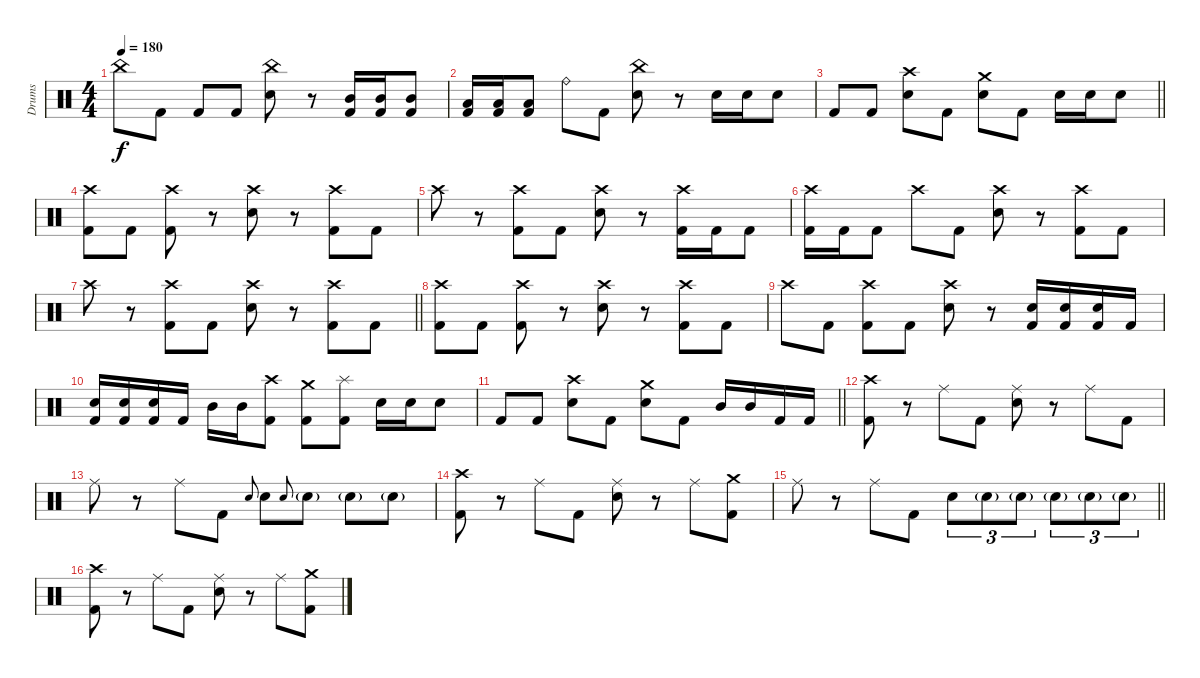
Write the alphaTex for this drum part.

\track ("Drums" "Drums") {instrument percussion}
\staff {score}
\articulation defaults
\ts (4 4)
\tempo 180
\clef neutral
\ks c "China (hit)".8{dy f} "Kick (hit) 2".8 "Kick (hit) 2".8 "Kick (hit) 2".8
("China (hit)" "Electric Snare (hit)").8 r.8 ("Mid Tom (hit)" "Kick (hit) 2").16 ("Mid Tom (hit)" "Kick (hit) 2").16 ("Mid Tom (hit)" "Kick (hit) 2").8 |
("Low Tom (hit)" "Kick (hit) 2").16 ("Low Tom (hit)" "Kick (hit) 2").16 ("Low Tom (hit)" "Kick (hit) 2").8 "Ride (bell)".8 "Kick (hit) 2".8 ("China (hit)" "Electric Snare (hit)").8 r.8 "Electric Snare (hit)".16 "Electric Snare (hit)".16 "Electric Snare (hit)".8 |
\barLineRight lightlight "Kick (hit) 2".8 "Kick (hit) 2".8
("Crash high (hit)" "Electric Snare (hit)").8 "Kick (hit) 2".8 ("Crash medium (hit)" "Electric Snare (hit)").8 "Kick (hit) 2".8 "Electric Snare (hit)".16 "Electric Snare (hit)".16 "Electric Snare (hit)".8 |
("Crash high (hit)" "Kick (hit) 2").8 "Kick (hit) 2".8 ("Crash high (hit)" "Kick (hit) 2").8 r.8 ("Crash high (hit)" "Electric Snare (hit)").8 r.8 ("Crash high (hit)" "Kick (hit) 2").8 "Kick (hit) 2".8 |
"Crash high (hit)".8 r.8 ("Crash high (hit)" "Kick (hit) 2").8 "Kick (hit) 2".8 ("Crash high (hit)" "Electric Snare (hit)").8 r.8 ("Crash high (hit)" "Kick (hit) 2").16 "Kick (hit) 2".16 "Kick (hit) 2".8 |
("Crash high (hit)" "Kick (hit) 2").16 "Kick (hit) 2".16 "Kick (hit) 2".8 "Crash high (hit)".8 "Kick (hit) 2".8 ("Crash high (hit)" "Electric Snare (hit)").8 r.8 ("Crash high (hit)" "Kick (hit) 2").8 "Kick (hit) 2".8 |
\barLineRight lightlight "Crash high (hit)".8
r.8 ("Crash high (hit)" "Kick (hit) 2").8 "Kick (hit) 2".8 ("Crash high (hit)" "Electric Snare (hit)").8 r.8 ("Crash high (hit)" "Kick (hit) 2").8 "Kick (hit) 2".8 |
("Crash high (hit)" "Kick (hit) 2").8 "Kick (hit) 2".8 ("Crash high (hit)" "Kick (hit) 2").8 r.8 ("Crash high (hit)" "Electric Snare (hit)").8 r.8 ("Crash high (hit)" "Kick (hit) 2").8 "Kick (hit) 2".8 |
"Crash high (hit)".8 "Kick (hit) 2".8 ("Crash high (hit)" "Kick (hit) 2").8 "Kick (hit) 2".8 ("Crash high (hit)" "Electric Snare (hit)").8 r.8 ("Electric Snare (hit)" "Kick (hit) 2").16 ("Electric Snare (hit)" "Kick (hit) 2").16 ("Electric Snare (hit)" "Kick (hit) 2").16 "Kick (hit) 2".16 |
("Electric Snare (hit)" "Kick (hit) 2").16 ("Electric Snare (hit)" "Kick (hit) 2").16 ("Electric Snare (hit)" "Kick (hit) 2").16 "Kick (hit) 2".16 "Mid Tom (hit)".16 "Mid Tom (hit)".16 ("Crash high (hit)" "Kick (hit) 2").8 ("Crash medium (hit)" "Kick (hit) 2").8 ("Splash (hit)" "Kick (hit) 2").8 "Electric Snare (hit)".16 "Electric Snare (hit)".16 "Electric Snare (hit)".8 |
\barLineRight lightlight "Kick (hit) 2".8 "Kick (hit) 2".8
("Crash high (hit)" "Electric Snare (hit)").8 "Kick (hit) 2".8 ("Crash medium (hit)" "Electric Snare (hit)").8 "Kick (hit) 2".8 "Mid Tom (hit)".16 "Mid Tom (hit)".16 "Kick (hit) 2".16 "Kick (hit) 2".16 |
("Crash high (hit)" "Kick (hit) 2").8 r.8 "Ride (middle)".8 "Kick (hit) 2".8 ("Ride (middle)" "Electric Snare (hit)").8 r.8 "Ride (middle)".8 "Kick (hit) 2".8 |
"Ride (middle)".8 r.8 "Ride (middle)".8 "Kick (hit) 2".8 "Electric Snare (hit)".8{gr onbeat} "Electric Snare (hit)".8 "Electric Snare (hit)".8{gr onbeat} "Electric Snare (hit)"{g}.8 "Electric Snare (hit)"{g}.8 "Electric Snare (hit)"{g}.8 |
("Crash high (hit)" "Kick (hit) 2").8 r.8 "Ride (middle)".8 "Kick (hit) 2".8 ("Ride (middle)" "Electric Snare (hit)").8 r.8 "Ride (middle)".8 ("Crash medium (hit)" "Kick (hit) 2").8 |
\barLineRight lightlight "Ride (middle)".8
r.8 "Ride (middle)".8 "Kick (hit) 2".8 "Electric Snare (hit)".8{tu (3 2)} "Electric Snare (hit)"{g}.8{tu (3 2)} "Electric Snare (hit)"{g}.8{tu (3 2)} "Electric Snare (hit)"{g}.8{tu (3 2)} "Electric Snare (hit)"{g}.8{tu (3 2)} "Electric Snare (hit)"{g}.8{tu (3 2)} |
("Crash high (hit)" "Kick (hit) 2").8 r.8 "Ride (middle)".8 "Kick (hit) 2".8 ("Ride (middle)" "Electric Snare (hit)").8 r.8 "Ride (middle)".8 ("Crash medium (hit)" "Kick (hit) 2").8
